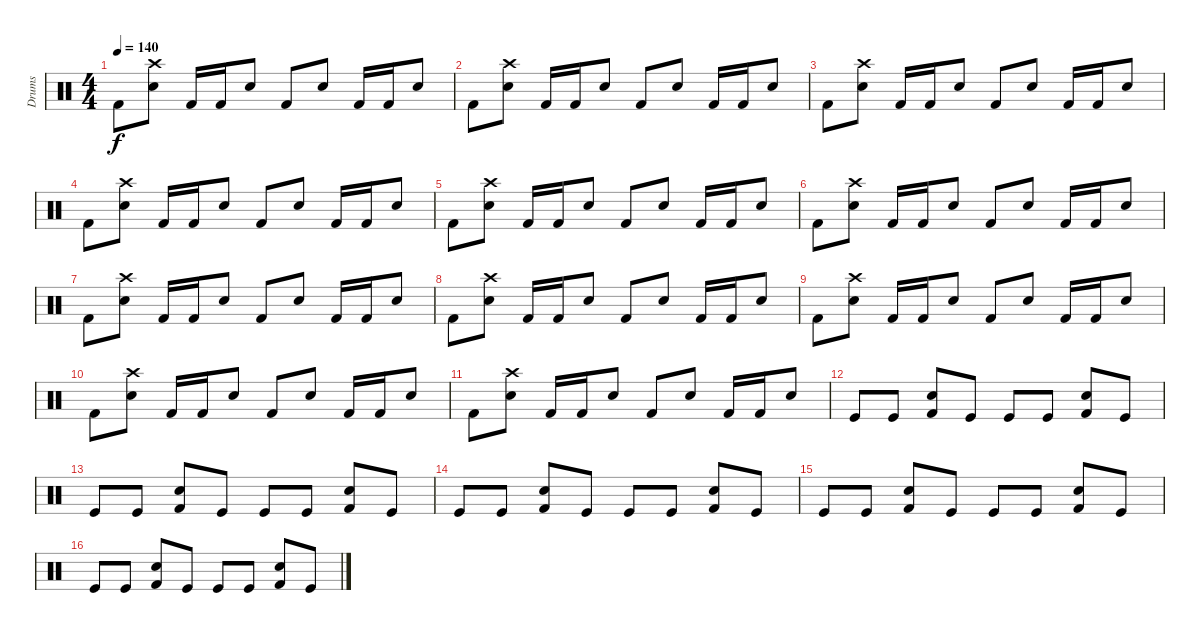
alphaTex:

\track ("Drums" "Drums") {instrument percussion}
\staff {score}
\articulation defaults
\ts (4 4)
\tempo 140
\clef neutral
\ks c "Kick (hit) 2".8{dy f}
("Snare (hit) 2" "Crash high (hit)").8 "Kick (hit) 2".16 "Kick (hit) 2".16 "Snare (hit) 2".8 "Kick (hit) 2".8 "Snare (hit) 2".8 "Kick (hit) 2".16 "Kick (hit) 2".16 "Snare (hit) 2".8 |
"Kick (hit) 2".8 ("Snare (hit) 2" "Crash high (hit)").8 "Kick (hit) 2".16 "Kick (hit) 2".16 "Snare (hit) 2".8 "Kick (hit) 2".8 "Snare (hit) 2".8 "Kick (hit) 2".16 "Kick (hit) 2".16 "Snare (hit) 2".8 |
"Kick (hit) 2".8 ("Snare (hit) 2" "Crash high (hit)").8 "Kick (hit) 2".16 "Kick (hit) 2".16 "Snare (hit) 2".8 "Kick (hit) 2".8 "Snare (hit) 2".8 "Kick (hit) 2".16 "Kick (hit) 2".16 "Snare (hit) 2".8 |
"Kick (hit) 2".8 ("Snare (hit) 2" "Crash high (hit)").8 "Kick (hit) 2".16 "Kick (hit) 2".16 "Snare (hit) 2".8 "Kick (hit) 2".8 "Snare (hit) 2".8 "Kick (hit) 2".16 "Kick (hit) 2".16 "Snare (hit) 2".8 |
"Kick (hit) 2".8 ("Snare (hit) 2" "Crash high (hit)").8 "Kick (hit) 2".16 "Kick (hit) 2".16 "Snare (hit) 2".8 "Kick (hit) 2".8 "Snare (hit) 2".8 "Kick (hit) 2".16 "Kick (hit) 2".16 "Snare (hit) 2".8 |
"Kick (hit) 2".8 ("Snare (hit) 2" "Crash high (hit)").8 "Kick (hit) 2".16 "Kick (hit) 2".16 "Snare (hit) 2".8 "Kick (hit) 2".8 "Snare (hit) 2".8 "Kick (hit) 2".16 "Kick (hit) 2".16 "Snare (hit) 2".8 |
"Kick (hit) 2".8 ("Snare (hit) 2" "Crash high (hit)").8 "Kick (hit) 2".16 "Kick (hit) 2".16 "Snare (hit) 2".8 "Kick (hit) 2".8 "Snare (hit) 2".8 "Kick (hit) 2".16 "Kick (hit) 2".16 "Snare (hit) 2".8 |
"Kick (hit) 2".8 ("Snare (hit) 2" "Crash high (hit)").8 "Kick (hit) 2".16 "Kick (hit) 2".16 "Snare (hit) 2".8 "Kick (hit) 2".8 "Snare (hit) 2".8 "Kick (hit) 2".16 "Kick (hit) 2".16 "Snare (hit) 2".8 |
"Kick (hit) 2".8 ("Snare (hit) 2" "Crash high (hit)").8 "Kick (hit) 2".16 "Kick (hit) 2".16 "Snare (hit) 2".8 "Kick (hit) 2".8 "Snare (hit) 2".8 "Kick (hit) 2".16 "Kick (hit) 2".16 "Snare (hit) 2".8 |
"Kick (hit) 2".8 ("Snare (hit) 2" "Crash high (hit)").8 "Kick (hit) 2".16 "Kick (hit) 2".16 "Snare (hit) 2".8 "Kick (hit) 2".8 "Snare (hit) 2".8 "Kick (hit) 2".16 "Kick (hit) 2".16 "Snare (hit) 2".8 |
"Kick (hit) 2".8 ("Snare (hit) 2" "Crash high (hit)").8 "Kick (hit) 2".16 "Kick (hit) 2".16 "Snare (hit) 2".8 "Kick (hit) 2".8 "Snare (hit) 2".8 "Kick (hit) 2".16 "Kick (hit) 2".16 "Snare (hit) 2".8 |
"Kick (hit)".8 "Kick (hit)".8 ("Kick (hit) 2" "Electric Snare (hit)").8 "Kick (hit)".8 "Kick (hit)".8 "Kick (hit)".8 ("Kick (hit) 2" "Electric Snare (hit)").8 "Kick (hit)".8 |
"Kick (hit)".8 "Kick (hit)".8 ("Kick (hit) 2" "Electric Snare (hit)").8 "Kick (hit)".8 "Kick (hit)".8 "Kick (hit)".8 ("Kick (hit) 2" "Electric Snare (hit)").8 "Kick (hit)".8 |
"Kick (hit)".8 "Kick (hit)".8 ("Kick (hit) 2" "Electric Snare (hit)").8 "Kick (hit)".8 "Kick (hit)".8 "Kick (hit)".8 ("Kick (hit) 2" "Electric Snare (hit)").8 "Kick (hit)".8 |
"Kick (hit)".8 "Kick (hit)".8 ("Kick (hit) 2" "Electric Snare (hit)").8 "Kick (hit)".8 "Kick (hit)".8 "Kick (hit)".8 ("Kick (hit) 2" "Electric Snare (hit)").8 "Kick (hit)".8 |
"Kick (hit)".8 "Kick (hit)".8 ("Kick (hit) 2" "Electric Snare (hit)").8 "Kick (hit)".8 "Kick (hit)".8 "Kick (hit)".8 ("Kick (hit) 2" "Electric Snare (hit)").8 "Kick (hit)".8
